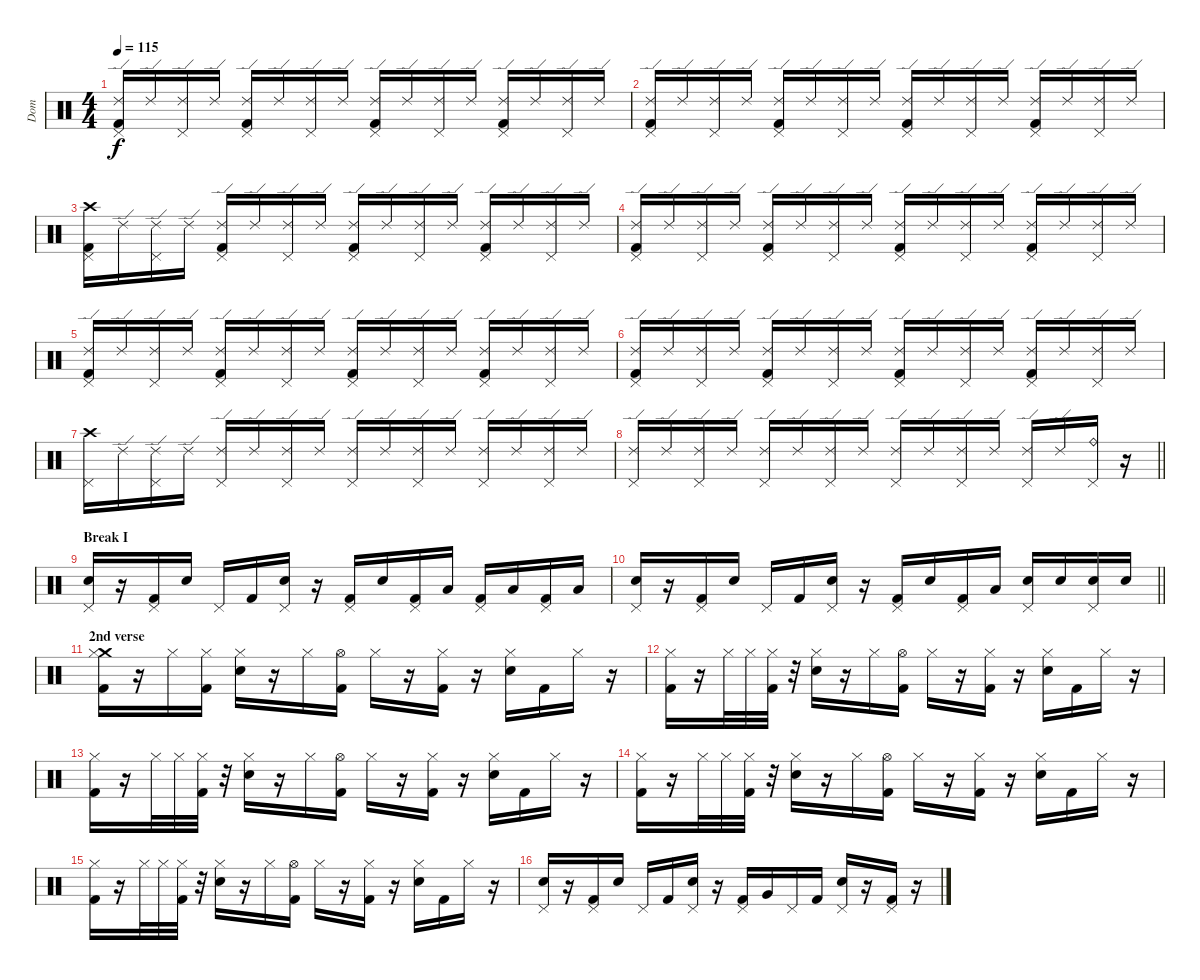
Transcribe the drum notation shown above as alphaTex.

\track ("Dom" "Dom") {instrument percussion}
\staff {score}
\articulation defaults
\ts (4 4)
\tempo 115
\clef neutral
\ks c
("Ride (edge) 2" "Pedal Hi-Hat (hit)" "Kick (hit) 2").16{dy f} "Ride (edge) 2".16 ("Ride (edge) 2" "Pedal Hi-Hat (hit)").16 "Ride (edge) 2".16 ("Ride (edge) 2" "Pedal Hi-Hat (hit)" "Kick (hit) 2").16 "Ride (edge) 2".16 ("Ride (edge) 2" "Pedal Hi-Hat (hit)").16 "Ride (edge) 2".16 ("Ride (edge) 2" "Pedal Hi-Hat (hit)" "Kick (hit) 2").16 "Ride (edge) 2".16 ("Ride (edge) 2" "Pedal Hi-Hat (hit)").16 "Ride (edge) 2".16 ("Ride (edge) 2" "Pedal Hi-Hat (hit)" "Kick (hit) 2").16 "Ride (edge) 2".16 ("Ride (edge) 2" "Pedal Hi-Hat (hit)").16 "Ride (edge) 2".16 |
("Ride (edge) 2" "Pedal Hi-Hat (hit)" "Kick (hit) 2").16 "Ride (edge) 2".16 ("Ride (edge) 2" "Pedal Hi-Hat (hit)").16 "Ride (edge) 2".16 ("Ride (edge) 2" "Pedal Hi-Hat (hit)" "Kick (hit) 2").16 "Ride (edge) 2".16 ("Ride (edge) 2" "Pedal Hi-Hat (hit)").16 "Ride (edge) 2".16 ("Ride (edge) 2" "Pedal Hi-Hat (hit)" "Kick (hit) 2").16 "Ride (edge) 2".16 ("Ride (edge) 2" "Pedal Hi-Hat (hit)").16 "Ride (edge) 2".16 ("Ride (edge) 2" "Pedal Hi-Hat (hit)" "Kick (hit) 2").16 "Ride (edge) 2".16 ("Ride (edge) 2" "Pedal Hi-Hat (hit)").16 "Ride (edge) 2".16 |
("Crash high (hit)" "Pedal Hi-Hat (hit)" "Kick (hit) 2").16 "Ride (edge) 2".16 ("Ride (edge) 2" "Pedal Hi-Hat (hit)").16 "Ride (edge) 2".16 ("Ride (edge) 2" "Pedal Hi-Hat (hit)" "Kick (hit) 2").16 "Ride (edge) 2".16 ("Ride (edge) 2" "Pedal Hi-Hat (hit)").16 "Ride (edge) 2".16 ("Ride (edge) 2" "Pedal Hi-Hat (hit)" "Kick (hit) 2").16 "Ride (edge) 2".16 ("Ride (edge) 2" "Pedal Hi-Hat (hit)").16 "Ride (edge) 2".16 ("Ride (edge) 2" "Pedal Hi-Hat (hit)" "Kick (hit) 2").16 "Ride (edge) 2".16 ("Ride (edge) 2" "Pedal Hi-Hat (hit)").16 "Ride (edge) 2".16 |
("Ride (edge) 2" "Pedal Hi-Hat (hit)" "Kick (hit) 2").16 "Ride (edge) 2".16 ("Ride (edge) 2" "Pedal Hi-Hat (hit)").16 "Ride (edge) 2".16 ("Ride (edge) 2" "Pedal Hi-Hat (hit)" "Kick (hit) 2").16 "Ride (edge) 2".16 ("Ride (edge) 2" "Pedal Hi-Hat (hit)").16 "Ride (edge) 2".16 ("Ride (edge) 2" "Pedal Hi-Hat (hit)" "Kick (hit) 2").16 "Ride (edge) 2".16 ("Ride (edge) 2" "Pedal Hi-Hat (hit)").16 "Ride (edge) 2".16 ("Ride (edge) 2" "Pedal Hi-Hat (hit)" "Kick (hit) 2").16 "Ride (edge) 2".16 ("Ride (edge) 2" "Pedal Hi-Hat (hit)").16 "Ride (edge) 2".16 |
("Ride (edge) 2" "Pedal Hi-Hat (hit)" "Kick (hit) 2").16 "Ride (edge) 2".16 ("Ride (edge) 2" "Pedal Hi-Hat (hit)").16 "Ride (edge) 2".16 ("Ride (edge) 2" "Pedal Hi-Hat (hit)" "Kick (hit) 2").16 "Ride (edge) 2".16 ("Ride (edge) 2" "Pedal Hi-Hat (hit)").16 "Ride (edge) 2".16 ("Ride (edge) 2" "Pedal Hi-Hat (hit)" "Kick (hit) 2").16 "Ride (edge) 2".16 ("Ride (edge) 2" "Pedal Hi-Hat (hit)").16 "Ride (edge) 2".16 ("Ride (edge) 2" "Pedal Hi-Hat (hit)" "Kick (hit) 2").16 "Ride (edge) 2".16 ("Ride (edge) 2" "Pedal Hi-Hat (hit)").16 "Ride (edge) 2".16 |
("Ride (edge) 2" "Pedal Hi-Hat (hit)" "Kick (hit) 2").16 "Ride (edge) 2".16 ("Ride (edge) 2" "Pedal Hi-Hat (hit)").16 "Ride (edge) 2".16 ("Ride (edge) 2" "Pedal Hi-Hat (hit)" "Kick (hit) 2").16 "Ride (edge) 2".16 ("Ride (edge) 2" "Pedal Hi-Hat (hit)").16 "Ride (edge) 2".16 ("Ride (edge) 2" "Pedal Hi-Hat (hit)" "Kick (hit) 2").16 "Ride (edge) 2".16 ("Ride (edge) 2" "Pedal Hi-Hat (hit)").16 "Ride (edge) 2".16 ("Ride (edge) 2" "Pedal Hi-Hat (hit)" "Kick (hit) 2").16 "Ride (edge) 2".16 ("Ride (edge) 2" "Pedal Hi-Hat (hit)").16 "Ride (edge) 2".16 |
("Crash high (hit)" "Pedal Hi-Hat (hit)").16 "Ride (edge) 2".16 ("Ride (edge) 2" "Pedal Hi-Hat (hit)").16 "Ride (edge) 2".16 ("Ride (edge) 2" "Pedal Hi-Hat (hit)").16 "Ride (edge) 2".16 ("Ride (edge) 2" "Pedal Hi-Hat (hit)").16 "Ride (edge) 2".16 ("Ride (edge) 2" "Pedal Hi-Hat (hit)").16 "Ride (edge) 2".16 ("Ride (edge) 2" "Pedal Hi-Hat (hit)").16 "Ride (edge) 2".16 ("Ride (edge) 2" "Pedal Hi-Hat (hit)").16 "Ride (edge) 2".16 ("Ride (edge) 2" "Pedal Hi-Hat (hit)").16 "Ride (edge) 2".16 |
\barLineRight lightlight
("Ride (edge) 2" "Pedal Hi-Hat (hit)").16 "Ride (edge) 2".16 ("Ride (edge) 2" "Pedal Hi-Hat (hit)").16 "Ride (edge) 2".16 ("Ride (edge) 2" "Pedal Hi-Hat (hit)").16 "Ride (edge) 2".16 ("Ride (edge) 2" "Pedal Hi-Hat (hit)").16 "Ride (edge) 2".16 ("Ride (edge) 2" "Pedal Hi-Hat (hit)").16 "Ride (edge) 2".16 ("Ride (edge) 2" "Pedal Hi-Hat (hit)").16 "Ride (edge) 2".16 ("Ride (edge) 2" "Pedal Hi-Hat (hit)").16 "Ride (edge) 2".16 ("Ride (bell)" "Pedal Hi-Hat (hit)").16 r.16 |
\section ("" "Break I")
("Snare (hit) 2" "Pedal Hi-Hat (hit)").16 r.16 ("Pedal Hi-Hat (hit)" "Kick (hit) 2").16 "Snare (hit) 2".16 "Pedal Hi-Hat (hit)".16 "Kick (hit) 2".16 ("Snare (hit) 2" "Pedal Hi-Hat (hit)").16 r.16 ("Pedal Hi-Hat (hit)" "Kick (hit) 2").16 "Snare (hit) 2".16 ("Pedal Hi-Hat (hit)" "Kick (hit) 2").16 "Low Floor Tom (hit)".16 ("Pedal Hi-Hat (hit)" "Kick (hit) 2").16 "Low Floor Tom (hit)".16 ("Pedal Hi-Hat (hit)" "Kick (hit) 2").16 "Low Floor Tom (hit)".16 |
\barLineRight lightlight
("Snare (hit) 2" "Pedal Hi-Hat (hit)").16 r.16 ("Pedal Hi-Hat (hit)" "Kick (hit) 2").16 "Snare (hit) 2".16 "Pedal Hi-Hat (hit)".16 "Kick (hit) 2".16 ("Snare (hit) 2" "Pedal Hi-Hat (hit)").16 r.16 ("Pedal Hi-Hat (hit)" "Kick (hit) 2").16 "Snare (hit) 2".16 ("Pedal Hi-Hat (hit)" "Kick (hit) 2").16 "Low Floor Tom (hit)".16 ("Snare (hit) 2" "Pedal Hi-Hat (hit)").16 "Snare (hit) 2".16 ("Snare (hit) 2" "Pedal Hi-Hat (hit)").16 "Snare (hit) 2".16 |
\section ("" "2nd verse")
("Crash medium (hit)" "Hi-Hat (closed)" "Kick (hit) 2").16 r.16 "Hi-Hat (closed)".16 ("Hi-Hat (closed)" "Kick (hit) 2").16 ("Snare (hit) 2" "Hi-Hat (closed)").16 r.16 "Hi-Hat (closed)".16 ("Hi-Hat (open)" "Kick (hit) 2").16 "Hi-Hat (closed)".16 r.16 ("Hi-Hat (closed)" "Kick (hit) 2").16 r.16 ("Snare (hit) 2" "Hi-Hat (closed)").16 "Kick (hit) 2".16 "Hi-Hat (closed)".16 r.16 |
("Hi-Hat (closed)" "Kick (hit) 2").16 r.16 "Hi-Hat (closed)".32 "Hi-Hat (closed)".32 ("Hi-Hat (closed)" "Kick (hit) 2").32 r.32 ("Snare (hit) 2" "Hi-Hat (closed)").16 r.16 "Hi-Hat (closed)".16 ("Hi-Hat (open)" "Kick (hit) 2").16 "Hi-Hat (closed)".16 r.16 ("Hi-Hat (closed)" "Kick (hit) 2").16 r.16 ("Snare (hit) 2" "Hi-Hat (closed)").16 "Kick (hit) 2".16 "Hi-Hat (closed)".16 r.16 |
("Hi-Hat (closed)" "Kick (hit) 2").16 r.16 "Hi-Hat (closed)".32 "Hi-Hat (closed)".32 ("Hi-Hat (closed)" "Kick (hit) 2").32 r.32 ("Snare (hit) 2" "Hi-Hat (closed)").16 r.16 "Hi-Hat (closed)".16 ("Hi-Hat (open)" "Kick (hit) 2").16 "Hi-Hat (closed)".16 r.16 ("Hi-Hat (closed)" "Kick (hit) 2").16 r.16 ("Snare (hit) 2" "Hi-Hat (closed)").16 "Kick (hit) 2".16 "Hi-Hat (closed)".16 r.16 |
("Hi-Hat (closed)" "Kick (hit) 2").16 r.16 "Hi-Hat (closed)".32 "Hi-Hat (closed)".32 ("Hi-Hat (closed)" "Kick (hit) 2").32 r.32 ("Snare (hit) 2" "Hi-Hat (closed)").16 r.16 "Hi-Hat (closed)".16 ("Hi-Hat (open)" "Kick (hit) 2").16 "Hi-Hat (closed)".16 r.16 ("Hi-Hat (closed)" "Kick (hit) 2").16 r.16 ("Snare (hit) 2" "Hi-Hat (closed)").16 "Kick (hit) 2".16 "Hi-Hat (closed)".16 r.16 |
("Hi-Hat (closed)" "Kick (hit) 2").16 r.16 "Hi-Hat (closed)".32 "Hi-Hat (closed)".32 ("Hi-Hat (closed)" "Kick (hit) 2").32 r.32 ("Snare (hit) 2" "Hi-Hat (closed)").16 r.16 "Hi-Hat (closed)".16 ("Hi-Hat (open)" "Kick (hit) 2").16 "Hi-Hat (closed)".16 r.16 ("Hi-Hat (closed)" "Kick (hit) 2").16 r.16 ("Snare (hit) 2" "Hi-Hat (closed)").16 "Kick (hit) 2".16 "Hi-Hat (closed)".16 r.16 |
("Snare (hit) 2" "Pedal Hi-Hat (hit)").16 r.16 ("Pedal Hi-Hat (hit)" "Kick (hit) 2").16 "Snare (hit) 2".16 "Pedal Hi-Hat (hit)".16 "Kick (hit) 2".16 ("Snare (hit) 2" "Pedal Hi-Hat (hit)").16 r.16 ("Pedal Hi-Hat (hit)" "Kick (hit) 2").16 "Very Low Tom (hit)".16 "Pedal Hi-Hat (hit)".16 "Kick (hit) 2".16 ("Snare (hit) 2" "Pedal Hi-Hat (hit)").16 r.16 ("Pedal Hi-Hat (hit)" "Kick (hit) 2").16 r.16
